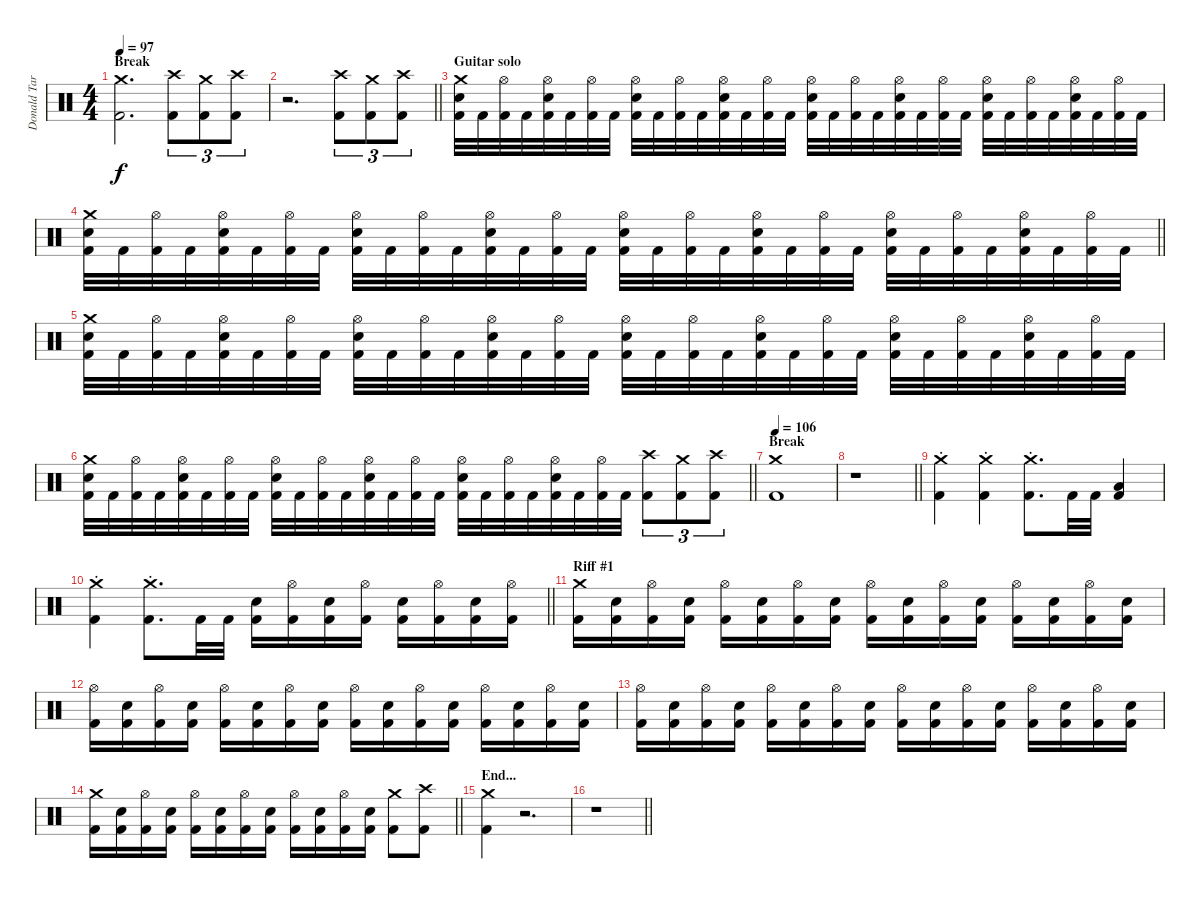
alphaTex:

\track ("Donald Tardy (Drums)" "Donald Tar") {instrument percussion}
\staff {score}
\articulation defaults
\ts (4 4)
\section ("" "Break")
\tempo 97
\clef neutral
\ks c
("Kick (hit) 2" "Crash medium (hit)").2{d dy f} ("Kick (hit) 2" "Crash high (hit)").8{tu (3 2)} ("Kick (hit) 2" "Crash medium (hit)").8{tu (3 2)} ("Kick (hit) 2" "Crash high (hit)").8{tu (3 2)} |
\barLineRight lightlight
r.2{d} ("Kick (hit) 2" "Crash high (hit)").8{tu (3 2)} ("Kick (hit) 2" "Crash medium (hit)").8{tu (3 2)} ("Kick (hit) 2" "Crash high (hit)").8{tu (3 2)} |
\section ("" "Guitar solo")
("Kick (hit) 2" "Snare (hit) 2" "Crash medium (hit)").32 "Kick (hit) 2".32 ("Kick (hit) 2" "Hi-Hat (open)").32 "Kick (hit) 2".32 ("Kick (hit) 2" "Snare (hit) 2" "Hi-Hat (open)").32 "Kick (hit) 2".32 ("Kick (hit) 2" "Hi-Hat (open)").32 "Kick (hit) 2".32 ("Kick (hit) 2" "Snare (hit) 2" "Hi-Hat (open)").32 "Kick (hit) 2".32 ("Kick (hit) 2" "Hi-Hat (open)").32 "Kick (hit) 2".32 ("Kick (hit) 2" "Snare (hit) 2" "Hi-Hat (open)").32 "Kick (hit) 2".32 ("Kick (hit) 2" "Hi-Hat (open)").32 "Kick (hit) 2".32 ("Kick (hit) 2" "Snare (hit) 2" "Hi-Hat (open)").32 "Kick (hit) 2".32 ("Kick (hit) 2" "Hi-Hat (open)").32 "Kick (hit) 2".32 ("Kick (hit) 2" "Snare (hit) 2" "Hi-Hat (open)").32 "Kick (hit) 2".32 ("Kick (hit) 2" "Hi-Hat (open)").32 "Kick (hit) 2".32 ("Kick (hit) 2" "Snare (hit) 2" "Hi-Hat (open)").32 "Kick (hit) 2".32 ("Kick (hit) 2" "Hi-Hat (open)").32 "Kick (hit) 2".32 ("Kick (hit) 2" "Snare (hit) 2" "Hi-Hat (open)").32 "Kick (hit) 2".32 ("Kick (hit) 2" "Hi-Hat (open)").32 "Kick (hit) 2".32 |
\barLineRight lightlight
("Kick (hit) 2" "Snare (hit) 2" "Crash medium (hit)").32 "Kick (hit) 2".32 ("Kick (hit) 2" "Hi-Hat (open)").32 "Kick (hit) 2".32 ("Kick (hit) 2" "Snare (hit) 2" "Hi-Hat (open)").32 "Kick (hit) 2".32 ("Kick (hit) 2" "Hi-Hat (open)").32 "Kick (hit) 2".32 ("Kick (hit) 2" "Snare (hit) 2" "Hi-Hat (open)").32 "Kick (hit) 2".32 ("Kick (hit) 2" "Hi-Hat (open)").32 "Kick (hit) 2".32 ("Kick (hit) 2" "Snare (hit) 2" "Hi-Hat (open)").32 "Kick (hit) 2".32 ("Kick (hit) 2" "Hi-Hat (open)").32 "Kick (hit) 2".32 ("Kick (hit) 2" "Snare (hit) 2" "Hi-Hat (open)").32 "Kick (hit) 2".32 ("Kick (hit) 2" "Hi-Hat (open)").32 "Kick (hit) 2".32 ("Kick (hit) 2" "Snare (hit) 2" "Hi-Hat (open)").32 "Kick (hit) 2".32 ("Kick (hit) 2" "Hi-Hat (open)").32 "Kick (hit) 2".32 ("Kick (hit) 2" "Snare (hit) 2" "Hi-Hat (open)").32 "Kick (hit) 2".32 ("Kick (hit) 2" "Hi-Hat (open)").32 "Kick (hit) 2".32 ("Kick (hit) 2" "Snare (hit) 2" "Hi-Hat (open)").32 "Kick (hit) 2".32 ("Kick (hit) 2" "Hi-Hat (open)").32 "Kick (hit) 2".32 |
("Kick (hit) 2" "Snare (hit) 2" "Crash medium (hit)").32 "Kick (hit) 2".32 ("Kick (hit) 2" "Hi-Hat (open)").32 "Kick (hit) 2".32 ("Kick (hit) 2" "Snare (hit) 2" "Hi-Hat (open)").32 "Kick (hit) 2".32 ("Kick (hit) 2" "Hi-Hat (open)").32 "Kick (hit) 2".32 ("Kick (hit) 2" "Snare (hit) 2" "Hi-Hat (open)").32 "Kick (hit) 2".32 ("Kick (hit) 2" "Hi-Hat (open)").32 "Kick (hit) 2".32 ("Kick (hit) 2" "Snare (hit) 2" "Hi-Hat (open)").32 "Kick (hit) 2".32 ("Kick (hit) 2" "Hi-Hat (open)").32 "Kick (hit) 2".32 ("Kick (hit) 2" "Snare (hit) 2" "Hi-Hat (open)").32 "Kick (hit) 2".32 ("Kick (hit) 2" "Hi-Hat (open)").32 "Kick (hit) 2".32 ("Kick (hit) 2" "Snare (hit) 2" "Hi-Hat (open)").32 "Kick (hit) 2".32 ("Kick (hit) 2" "Hi-Hat (open)").32 "Kick (hit) 2".32 ("Kick (hit) 2" "Snare (hit) 2" "Hi-Hat (open)").32 "Kick (hit) 2".32 ("Kick (hit) 2" "Hi-Hat (open)").32 "Kick (hit) 2".32 ("Kick (hit) 2" "Snare (hit) 2" "Hi-Hat (open)").32 "Kick (hit) 2".32 ("Kick (hit) 2" "Hi-Hat (open)").32 "Kick (hit) 2".32 |
\barLineRight lightlight
("Kick (hit) 2" "Snare (hit) 2" "Crash medium (hit)").32 "Kick (hit) 2".32 ("Kick (hit) 2" "Hi-Hat (open)").32 "Kick (hit) 2".32 ("Kick (hit) 2" "Snare (hit) 2" "Hi-Hat (open)").32 "Kick (hit) 2".32 ("Kick (hit) 2" "Hi-Hat (open)").32 "Kick (hit) 2".32 ("Kick (hit) 2" "Snare (hit) 2" "Hi-Hat (open)").32 "Kick (hit) 2".32 ("Kick (hit) 2" "Hi-Hat (open)").32 "Kick (hit) 2".32 ("Kick (hit) 2" "Snare (hit) 2" "Hi-Hat (open)").32 "Kick (hit) 2".32 ("Kick (hit) 2" "Hi-Hat (open)").32 "Kick (hit) 2".32 ("Kick (hit) 2" "Snare (hit) 2" "Hi-Hat (open)").32 "Kick (hit) 2".32 ("Kick (hit) 2" "Hi-Hat (open)").32 "Kick (hit) 2".32 ("Kick (hit) 2" "Snare (hit) 2" "Hi-Hat (open)").32 "Kick (hit) 2".32 ("Kick (hit) 2" "Hi-Hat (open)").32 "Kick (hit) 2".32 ("Kick (hit) 2" "Crash high (hit)").8{tu (3 2)} ("Kick (hit) 2" "Crash medium (hit)").8{tu (3 2)} ("Kick (hit) 2" "Crash high (hit)").8{tu (3 2)} |
\section ("" "Break")
\tempo 106
("Kick (hit) 2" "Crash medium (hit)").1 |
\barLineRight lightlight
r.1 |
("Kick (hit) 2" "Crash medium (hit)"{st}).4 ("Kick (hit) 2" "Crash medium (hit)"{st}).4 ("Kick (hit) 2" "Crash medium (hit)"{st}).8{d} "Kick (hit) 2".32 "Kick (hit) 2".32 ("Kick (hit) 2" "Low Floor Tom (hit)").4 |
\barLineRight lightlight
("Kick (hit) 2" "Crash medium (hit)"{st}).4 ("Kick (hit) 2" "Crash medium (hit)"{st}).8{d} "Kick (hit) 2".32 "Kick (hit) 2".32 ("Kick (hit) 2" "Snare (hit) 2").16 ("Kick (hit) 2" "Hi-Hat (open)").16 ("Kick (hit) 2" "Snare (hit) 2").16 ("Kick (hit) 2" "Hi-Hat (open)").16 ("Kick (hit) 2" "Snare (hit) 2").16 ("Kick (hit) 2" "Hi-Hat (open)").16 ("Kick (hit) 2" "Snare (hit) 2").16 ("Kick (hit) 2" "Hi-Hat (open)").16 |
\section ("" "Riff #1")
("Kick (hit) 2" "Crash medium (hit)").16 ("Kick (hit) 2" "Snare (hit) 2").16 ("Kick (hit) 2" "Hi-Hat (open)").16 ("Kick (hit) 2" "Snare (hit) 2").16 ("Kick (hit) 2" "Hi-Hat (open)").16 ("Kick (hit) 2" "Snare (hit) 2").16 ("Kick (hit) 2" "Hi-Hat (open)").16 ("Kick (hit) 2" "Snare (hit) 2").16 ("Kick (hit) 2" "Hi-Hat (open)").16 ("Kick (hit) 2" "Snare (hit) 2").16 ("Kick (hit) 2" "Hi-Hat (open)").16 ("Kick (hit) 2" "Snare (hit) 2").16 ("Kick (hit) 2" "Hi-Hat (open)").16 ("Kick (hit) 2" "Snare (hit) 2").16 ("Kick (hit) 2" "Hi-Hat (open)").16 ("Kick (hit) 2" "Snare (hit) 2").16 |
("Kick (hit) 2" "Hi-Hat (open)").16 ("Kick (hit) 2" "Snare (hit) 2").16 ("Kick (hit) 2" "Hi-Hat (open)").16 ("Kick (hit) 2" "Snare (hit) 2").16 ("Kick (hit) 2" "Hi-Hat (open)").16 ("Kick (hit) 2" "Snare (hit) 2").16 ("Kick (hit) 2" "Hi-Hat (open)").16 ("Kick (hit) 2" "Snare (hit) 2").16 ("Kick (hit) 2" "Hi-Hat (open)").16 ("Kick (hit) 2" "Snare (hit) 2").16 ("Kick (hit) 2" "Hi-Hat (open)").16 ("Kick (hit) 2" "Snare (hit) 2").16 ("Kick (hit) 2" "Hi-Hat (open)").16 ("Kick (hit) 2" "Snare (hit) 2").16 ("Kick (hit) 2" "Hi-Hat (open)").16 ("Kick (hit) 2" "Snare (hit) 2").16 |
("Kick (hit) 2" "Hi-Hat (open)").16 ("Kick (hit) 2" "Snare (hit) 2").16 ("Kick (hit) 2" "Hi-Hat (open)").16 ("Kick (hit) 2" "Snare (hit) 2").16 ("Kick (hit) 2" "Hi-Hat (open)").16 ("Kick (hit) 2" "Snare (hit) 2").16 ("Kick (hit) 2" "Hi-Hat (open)").16 ("Kick (hit) 2" "Snare (hit) 2").16 ("Kick (hit) 2" "Hi-Hat (open)").16 ("Kick (hit) 2" "Snare (hit) 2").16 ("Kick (hit) 2" "Hi-Hat (open)").16 ("Kick (hit) 2" "Snare (hit) 2").16 ("Kick (hit) 2" "Hi-Hat (open)").16 ("Kick (hit) 2" "Snare (hit) 2").16 ("Kick (hit) 2" "Hi-Hat (open)").16 ("Kick (hit) 2" "Snare (hit) 2").16 |
\barLineRight lightlight
("Kick (hit) 2" "Crash medium (hit)").16 ("Kick (hit) 2" "Snare (hit) 2").16 ("Kick (hit) 2" "Hi-Hat (open)").16 ("Kick (hit) 2" "Snare (hit) 2").16 ("Kick (hit) 2" "Hi-Hat (open)").16 ("Kick (hit) 2" "Snare (hit) 2").16 ("Kick (hit) 2" "Hi-Hat (open)").16 ("Kick (hit) 2" "Snare (hit) 2").16 ("Kick (hit) 2" "Hi-Hat (open)").16 ("Kick (hit) 2" "Snare (hit) 2").16 ("Kick (hit) 2" "Hi-Hat (open)").16 ("Kick (hit) 2" "Snare (hit) 2").16 ("Kick (hit) 2" "Crash medium (hit)").8 ("Kick (hit) 2" "Crash high (hit)").8 |
\section ("" "End...")
("Kick (hit) 2" "Crash medium (hit)").4 r.2{d} |
\barLineRight lightlight
r.1
